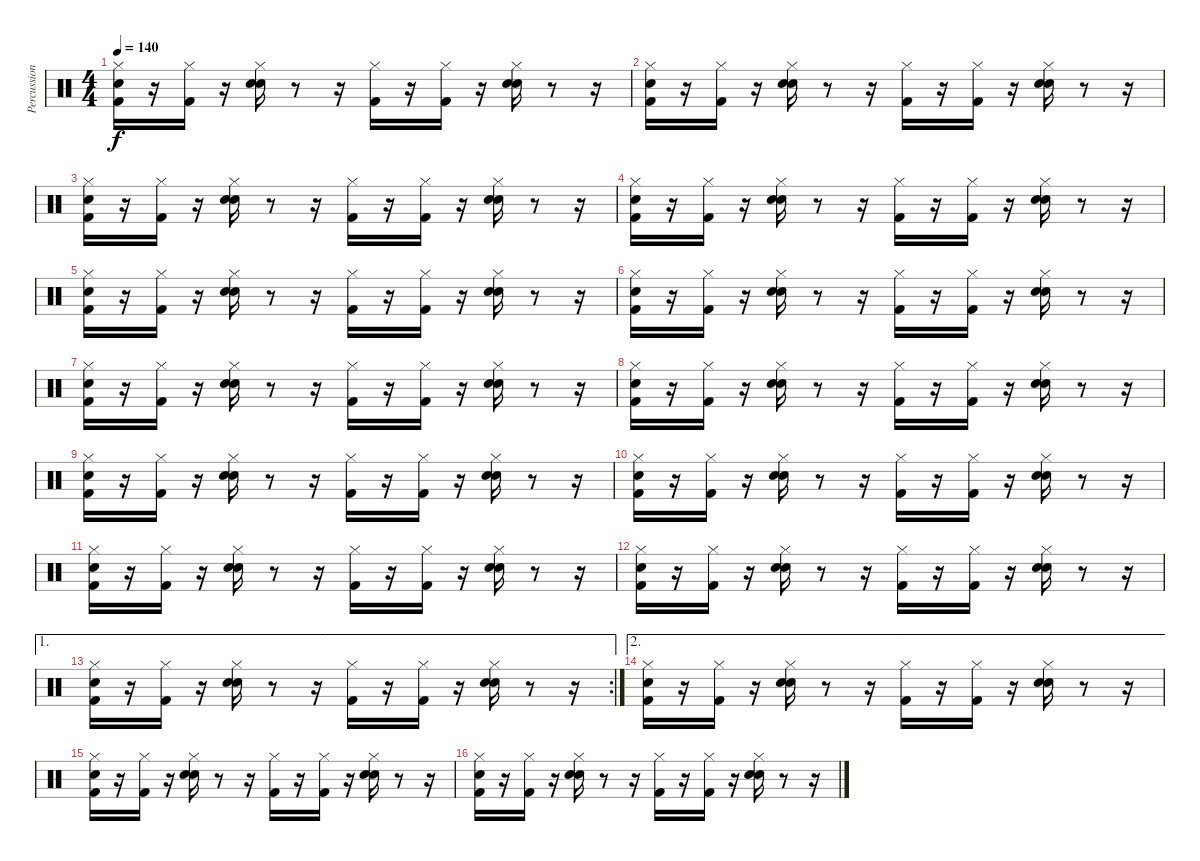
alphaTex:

\track ("Percussion" "Percussion") {instrument percussion}
\staff {score}
\articulation defaults
\ts (4 4)
\tempo 140
\clef neutral
\ks c
("Snare (hit)" "Kick (hit) 2" "Hi-Hat (closed)").16{dy f} r.16 ("Kick (hit) 2" "Hi-Hat (closed)").16 r.16 ("Hand Clap (hit)" "Hi-Hat (closed)" "Snare (hit) 2").16 r.8 r.16 ("Hi-Hat (closed)" "Kick (hit) 2").16 r.16 ("Hi-Hat (closed)" "Kick (hit) 2").16 r.16 ("Snare (hit) 2" "Hand Clap (hit)" "Hi-Hat (closed)").16 r.8 r.16 |
("Snare (hit)" "Kick (hit) 2" "Hi-Hat (closed)").16 r.16 ("Kick (hit) 2" "Hi-Hat (closed)").16 r.16 ("Hand Clap (hit)" "Hi-Hat (closed)" "Snare (hit) 2").16 r.8 r.16 ("Hi-Hat (closed)" "Kick (hit) 2").16 r.16 ("Hi-Hat (closed)" "Kick (hit) 2").16 r.16 ("Snare (hit) 2" "Hand Clap (hit)" "Hi-Hat (closed)").16 r.8 r.16 |
("Snare (hit)" "Kick (hit) 2" "Hi-Hat (closed)").16 r.16 ("Kick (hit) 2" "Hi-Hat (closed)").16 r.16 ("Hand Clap (hit)" "Hi-Hat (closed)" "Snare (hit) 2").16 r.8 r.16 ("Hi-Hat (closed)" "Kick (hit) 2").16 r.16 ("Hi-Hat (closed)" "Kick (hit) 2").16 r.16 ("Snare (hit) 2" "Hand Clap (hit)" "Hi-Hat (closed)").16 r.8 r.16 |
("Snare (hit)" "Kick (hit) 2" "Hi-Hat (closed)").16 r.16 ("Kick (hit) 2" "Hi-Hat (closed)").16 r.16 ("Hand Clap (hit)" "Hi-Hat (closed)" "Snare (hit) 2").16 r.8 r.16 ("Hi-Hat (closed)" "Kick (hit) 2").16 r.16 ("Hi-Hat (closed)" "Kick (hit) 2").16 r.16 ("Snare (hit) 2" "Hand Clap (hit)" "Hi-Hat (closed)").16 r.8 r.16 |
("Snare (hit)" "Kick (hit) 2" "Hi-Hat (closed)").16 r.16 ("Kick (hit) 2" "Hi-Hat (closed)").16 r.16 ("Hand Clap (hit)" "Hi-Hat (closed)" "Snare (hit) 2").16 r.8 r.16 ("Hi-Hat (closed)" "Kick (hit) 2").16 r.16 ("Hi-Hat (closed)" "Kick (hit) 2").16 r.16 ("Snare (hit) 2" "Hand Clap (hit)" "Hi-Hat (closed)").16 r.8 r.16 |
("Snare (hit)" "Kick (hit) 2" "Hi-Hat (closed)").16 r.16 ("Kick (hit) 2" "Hi-Hat (closed)").16 r.16 ("Hand Clap (hit)" "Hi-Hat (closed)" "Snare (hit) 2").16 r.8 r.16 ("Hi-Hat (closed)" "Kick (hit) 2").16 r.16 ("Hi-Hat (closed)" "Kick (hit) 2").16 r.16 ("Snare (hit) 2" "Hand Clap (hit)" "Hi-Hat (closed)").16 r.8 r.16 |
("Snare (hit)" "Kick (hit) 2" "Hi-Hat (closed)").16 r.16 ("Kick (hit) 2" "Hi-Hat (closed)").16 r.16 ("Hand Clap (hit)" "Hi-Hat (closed)" "Snare (hit) 2").16 r.8 r.16 ("Hi-Hat (closed)" "Kick (hit) 2").16 r.16 ("Hi-Hat (closed)" "Kick (hit) 2").16 r.16 ("Snare (hit) 2" "Hand Clap (hit)" "Hi-Hat (closed)").16 r.8 r.16 |
("Snare (hit)" "Kick (hit) 2" "Hi-Hat (closed)").16 r.16 ("Kick (hit) 2" "Hi-Hat (closed)").16 r.16 ("Hand Clap (hit)" "Hi-Hat (closed)" "Snare (hit) 2").16 r.8 r.16 ("Hi-Hat (closed)" "Kick (hit) 2").16 r.16 ("Hi-Hat (closed)" "Kick (hit) 2").16 r.16 ("Snare (hit) 2" "Hand Clap (hit)" "Hi-Hat (closed)").16 r.8 r.16 |
("Snare (hit)" "Kick (hit) 2" "Hi-Hat (closed)").16 r.16 ("Kick (hit) 2" "Hi-Hat (closed)").16 r.16 ("Hand Clap (hit)" "Hi-Hat (closed)" "Snare (hit) 2").16 r.8 r.16 ("Hi-Hat (closed)" "Kick (hit) 2").16 r.16 ("Hi-Hat (closed)" "Kick (hit) 2").16 r.16 ("Snare (hit) 2" "Hand Clap (hit)" "Hi-Hat (closed)").16 r.8 r.16 |
("Snare (hit)" "Kick (hit) 2" "Hi-Hat (closed)").16 r.16 ("Kick (hit) 2" "Hi-Hat (closed)").16 r.16 ("Hand Clap (hit)" "Hi-Hat (closed)" "Snare (hit) 2").16 r.8 r.16 ("Hi-Hat (closed)" "Kick (hit) 2").16 r.16 ("Hi-Hat (closed)" "Kick (hit) 2").16 r.16 ("Snare (hit) 2" "Hand Clap (hit)" "Hi-Hat (closed)").16 r.8 r.16 |
("Snare (hit)" "Kick (hit) 2" "Hi-Hat (closed)").16 r.16 ("Kick (hit) 2" "Hi-Hat (closed)").16 r.16 ("Hand Clap (hit)" "Hi-Hat (closed)" "Snare (hit) 2").16 r.8 r.16 ("Hi-Hat (closed)" "Kick (hit) 2").16 r.16 ("Hi-Hat (closed)" "Kick (hit) 2").16 r.16 ("Snare (hit) 2" "Hand Clap (hit)" "Hi-Hat (closed)").16 r.8 r.16 |
("Snare (hit)" "Kick (hit) 2" "Hi-Hat (closed)").16 r.16 ("Kick (hit) 2" "Hi-Hat (closed)").16 r.16 ("Hand Clap (hit)" "Hi-Hat (closed)" "Snare (hit) 2").16 r.8 r.16 ("Hi-Hat (closed)" "Kick (hit) 2").16 r.16 ("Hi-Hat (closed)" "Kick (hit) 2").16 r.16 ("Snare (hit) 2" "Hand Clap (hit)" "Hi-Hat (closed)").16 r.8 r.16 |
\ae 1
\rc 2
("Snare (hit)" "Kick (hit) 2" "Hi-Hat (closed)").16 r.16 ("Kick (hit) 2" "Hi-Hat (closed)").16 r.16 ("Hand Clap (hit)" "Hi-Hat (closed)" "Snare (hit) 2").16 r.8 r.16 ("Hi-Hat (closed)" "Kick (hit) 2").16 r.16 ("Hi-Hat (closed)" "Kick (hit) 2").16 r.16 ("Snare (hit) 2" "Hand Clap (hit)" "Hi-Hat (closed)").16 r.8 r.16 |
\ae 2
("Snare (hit)" "Kick (hit) 2" "Hi-Hat (closed)").16 r.16 ("Kick (hit) 2" "Hi-Hat (closed)").16 r.16 ("Hand Clap (hit)" "Hi-Hat (closed)" "Snare (hit) 2").16 r.8 r.16 ("Hi-Hat (closed)" "Kick (hit) 2").16 r.16 ("Hi-Hat (closed)" "Kick (hit) 2").16 r.16 ("Snare (hit) 2" "Hand Clap (hit)" "Hi-Hat (closed)").16 r.8 r.16 |
("Snare (hit)" "Kick (hit) 2" "Hi-Hat (closed)").16 r.16 ("Kick (hit) 2" "Hi-Hat (closed)").16 r.16 ("Hand Clap (hit)" "Hi-Hat (closed)" "Snare (hit) 2").16 r.8 r.16 ("Hi-Hat (closed)" "Kick (hit) 2").16 r.16 ("Hi-Hat (closed)" "Kick (hit) 2").16 r.16 ("Snare (hit) 2" "Hand Clap (hit)" "Hi-Hat (closed)").16 r.8 r.16 |
("Snare (hit)" "Kick (hit) 2" "Hi-Hat (closed)").16 r.16 ("Kick (hit) 2" "Hi-Hat (closed)").16 r.16 ("Hand Clap (hit)" "Hi-Hat (closed)" "Snare (hit) 2").16 r.8 r.16 ("Hi-Hat (closed)" "Kick (hit) 2").16 r.16 ("Hi-Hat (closed)" "Kick (hit) 2").16 r.16 ("Snare (hit) 2" "Hand Clap (hit)" "Hi-Hat (closed)").16 r.8 r.16
